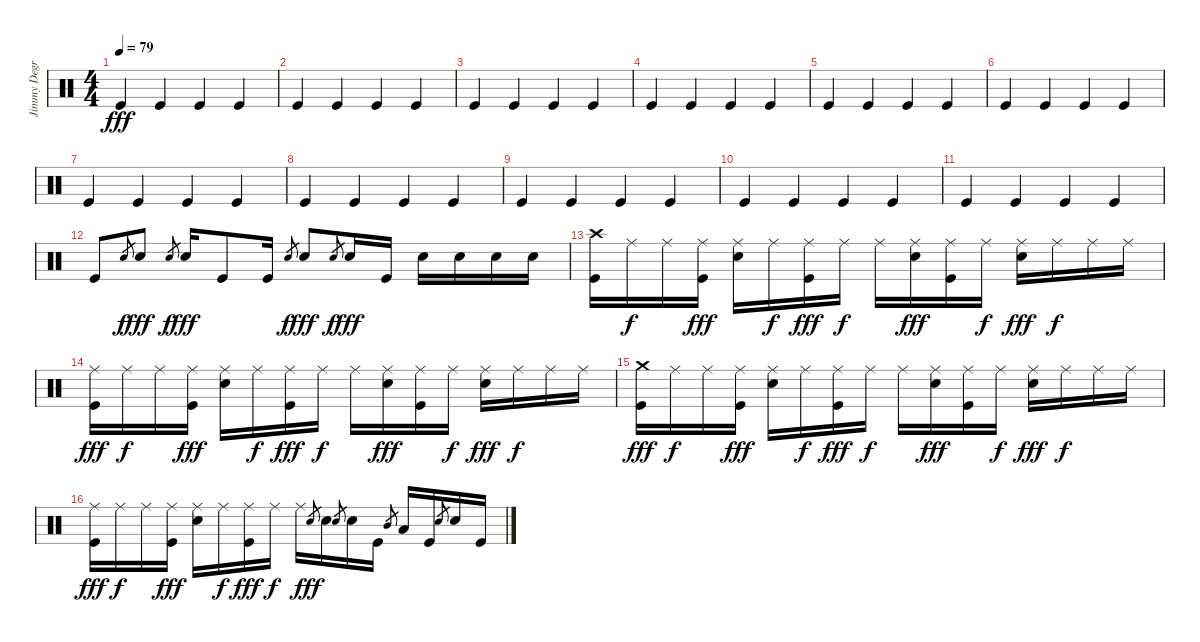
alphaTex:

\track ("Jimmy Degrasso" "Jimmy Degr") {instrument percussion}
\staff {score}
\articulation defaults
\ts (4 4)
\tempo 79
\clef neutral
\ks c "Kick (hit)".4{dy fff} "Kick (hit)".4 "Kick (hit)".4 "Kick (hit)".4
|
"Kick (hit)".4 "Kick (hit)".4 "Kick (hit)".4 "Kick (hit)".4 |
"Kick (hit)".4 "Kick (hit)".4 "Kick (hit)".4 "Kick (hit)".4 |
"Kick (hit)".4 "Kick (hit)".4 "Kick (hit)".4 "Kick (hit)".4 |
"Kick (hit)".4 "Kick (hit)".4 "Kick (hit)".4 "Kick (hit)".4 |
"Kick (hit)".4 "Kick (hit)".4 "Kick (hit)".4 "Kick (hit)".4 |
"Kick (hit)".4 "Kick (hit)".4 "Kick (hit)".4 "Kick (hit)".4 |
"Kick (hit)".4 "Kick (hit)".4 "Kick (hit)".4 "Kick (hit)".4 |
"Kick (hit)".4 "Kick (hit)".4 "Kick (hit)".4 "Kick (hit)".4 |
"Kick (hit)".4 "Kick (hit)".4 "Kick (hit)".4 "Kick (hit)".4 |
"Kick (hit)".4 "Kick (hit)".4 "Kick (hit)".4 "Kick (hit)".4 |
"Kick (hit)".8 "Electric Snare (hit)".8{gr dy f} "Electric Snare (hit)".8{dy fff} "Electric Snare (hit)".8{gr dy f} "Electric Snare (hit)".16{dy fff} "Kick (hit)".8 "Kick (hit)".16 "Electric Snare (hit)".8{gr dy f} "Electric Snare (hit)".8{dy fff} "Electric Snare (hit)".8{gr dy f} "Electric Snare (hit)".16{dy fff} "Kick (hit)".16 "Electric Snare (hit)".16 "Electric Snare (hit)".16 "Electric Snare (hit)".16 "Electric Snare (hit)".16 |
("Kick (hit)" "Crash high (hit)").16 "Ride (middle)".16{dy f} "Ride (middle)".16 ("Kick (hit)" "Ride (middle)").16{dy fff} ("Electric Snare (hit)" "Ride (middle)").16 "Ride (middle)".16{dy f} ("Kick (hit)" "Ride (middle)").16{dy fff} "Ride (middle)".16{dy f} "Ride (middle)".16 ("Electric Snare (hit)" "Ride (middle)").16{dy fff} ("Kick (hit)" "Ride (middle)").16 "Ride (middle)".16{dy f} ("Electric Snare (hit)" "Ride (middle)").16{dy fff} "Ride (middle)".16{dy f} "Ride (middle)".16 "Ride (middle)".16 |
("Kick (hit)" "Ride (middle)").16{dy fff} "Ride (middle)".16{dy f} "Ride (middle)".16 ("Kick (hit)" "Ride (middle)").16{dy fff} ("Electric Snare (hit)" "Ride (middle)").16 "Ride (middle)".16{dy f} ("Kick (hit)" "Ride (middle)").16{dy fff} "Ride (middle)".16{dy f} "Ride (middle)".16 ("Electric Snare (hit)" "Ride (middle)").16{dy fff} ("Kick (hit)" "Ride (middle)").16 "Ride (middle)".16{dy f} ("Electric Snare (hit)" "Ride (middle)").16{dy fff} "Ride (middle)".16{dy f} "Ride (middle)".16 "Ride (middle)".16 |
("Kick (hit)" "Crash medium (hit)").16{dy fff} "Ride (middle)".16{dy f} "Ride (middle)".16 ("Kick (hit)" "Ride (middle)").16{dy fff} ("Electric Snare (hit)" "Ride (middle)").16 "Ride (middle)".16{dy f} ("Kick (hit)" "Ride (middle)").16{dy fff} "Ride (middle)".16{dy f} "Ride (middle)".16 ("Electric Snare (hit)" "Ride (middle)").16{dy fff} ("Kick (hit)" "Ride (middle)").16 "Ride (middle)".16{dy f} ("Electric Snare (hit)" "Ride (middle)").16{dy fff} "Ride (middle)".16{dy f} "Ride (middle)".16 "Ride (middle)".16 |
("Kick (hit)" "Ride (middle)").16{dy fff} "Ride (middle)".16{dy f} "Ride (middle)".16 ("Kick (hit)" "Ride (middle)").16{dy fff} ("Electric Snare (hit)" "Ride (middle)").16 "Ride (middle)".16{dy f} ("Kick (hit)" "Ride (middle)").16{dy fff} "Ride (middle)".16{dy f} "Ride (middle)".16 "Electric Snare (hit)".8{gr dy fff} "Electric Snare (hit)".16 "Electric Snare (hit)".8{gr} "Electric Snare (hit)".16 "Kick (hit)".16 "Mid Tom (hit)".8{gr} "Low Tom (hit)".16 "Kick (hit)".16 "Electric Snare (hit)".8{gr} "Electric Snare (hit)".16 "Kick (hit)".16
